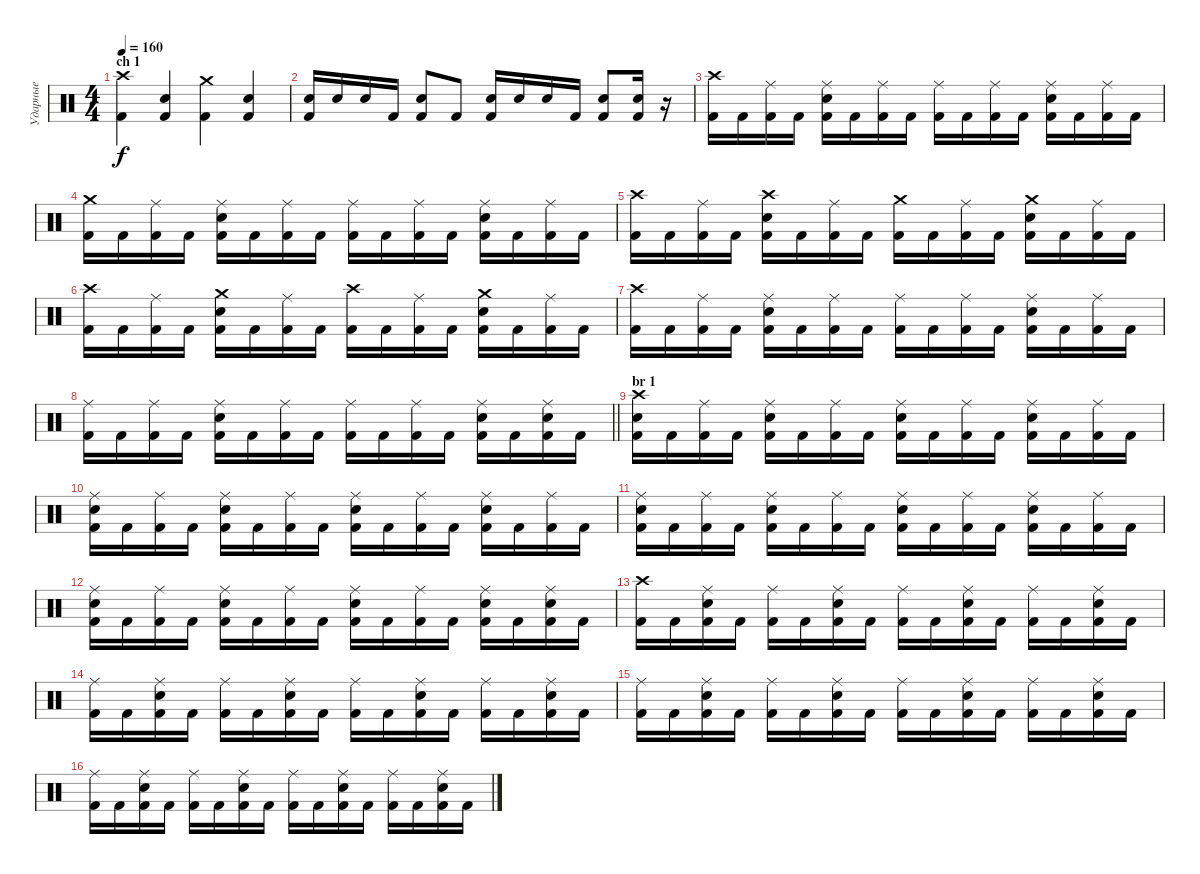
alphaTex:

\track ("Ударные" "Ударные") {instrument percussion}
\staff {score}
\articulation defaults
\ts (4 4)
\section ("" "ch 1")
\tempo 160
\clef neutral
\ks c
("Crash high (hit)" "Kick (hit) 2").4{dy f} ("Electric Snare (hit)" "Kick (hit) 2").4 ("Crash medium (hit)" "Kick (hit) 2").4 ("Electric Snare (hit)" "Kick (hit) 2").4 |
("Electric Snare (hit)" "Kick (hit) 2").16 "Electric Snare (hit)".16 "Electric Snare (hit)".16 "Kick (hit) 2".16 ("Electric Snare (hit)" "Kick (hit) 2").8 "Kick (hit) 2".8 ("Electric Snare (hit)" "Kick (hit) 2").16 "Electric Snare (hit)".16 "Electric Snare (hit)".16 "Kick (hit) 2".16 ("Electric Snare (hit)" "Kick (hit) 2").8 ("Electric Snare (hit)" "Kick (hit) 2").16 r.16 |
("Crash high (hit)" "Kick (hit) 2").16 "Kick (hit) 2".16 ("Ride (middle)" "Kick (hit) 2").16 "Kick (hit) 2".16 ("Ride (middle)" "Electric Snare (hit)" "Kick (hit) 2").16 "Kick (hit) 2".16 ("Ride (middle)" "Kick (hit) 2").16 "Kick (hit) 2".16 ("Ride (middle)" "Kick (hit) 2").16 "Kick (hit) 2".16 ("Ride (middle)" "Kick (hit) 2").16 "Kick (hit) 2".16 ("Ride (middle)" "Electric Snare (hit)" "Kick (hit) 2").16 "Kick (hit) 2".16 ("Ride (middle)" "Kick (hit) 2").16 "Kick (hit) 2".16 |
("Crash medium (hit)" "Kick (hit) 2").16 "Kick (hit) 2".16 ("Ride (middle)" "Kick (hit) 2").16 "Kick (hit) 2".16 ("Ride (middle)" "Electric Snare (hit)" "Kick (hit) 2").16 "Kick (hit) 2".16 ("Ride (middle)" "Kick (hit) 2").16 "Kick (hit) 2".16 ("Ride (middle)" "Kick (hit) 2").16 "Kick (hit) 2".16 ("Ride (middle)" "Kick (hit) 2").16 "Kick (hit) 2".16 ("Ride (middle)" "Electric Snare (hit)" "Kick (hit) 2").16 "Kick (hit) 2".16 ("Ride (middle)" "Kick (hit) 2").16 "Kick (hit) 2".16 |
("Crash high (hit)" "Kick (hit) 2").16 "Kick (hit) 2".16 ("Ride (middle)" "Kick (hit) 2").16 "Kick (hit) 2".16 ("Crash high (hit)" "Electric Snare (hit)" "Kick (hit) 2").16 "Kick (hit) 2".16 ("Ride (middle)" "Kick (hit) 2").16 "Kick (hit) 2".16 ("Crash medium (hit)" "Kick (hit) 2").16 "Kick (hit) 2".16 ("Ride (middle)" "Kick (hit) 2").16 "Kick (hit) 2".16 ("Crash medium (hit)" "Electric Snare (hit)" "Kick (hit) 2").16 "Kick (hit) 2".16 ("Ride (middle)" "Kick (hit) 2").16 "Kick (hit) 2".16 |
("Crash high (hit)" "Kick (hit) 2").16 "Kick (hit) 2".16 ("Ride (middle)" "Kick (hit) 2").16 "Kick (hit) 2".16 ("Crash medium (hit)" "Electric Snare (hit)" "Kick (hit) 2").16 "Kick (hit) 2".16 ("Ride (middle)" "Kick (hit) 2").16 "Kick (hit) 2".16 ("Crash high (hit)" "Kick (hit) 2").16 "Kick (hit) 2".16 ("Ride (middle)" "Kick (hit) 2").16 "Kick (hit) 2".16 ("Crash medium (hit)" "Electric Snare (hit)" "Kick (hit) 2").16 "Kick (hit) 2".16 ("Ride (middle)" "Kick (hit) 2").16 "Kick (hit) 2".16 |
("Crash high (hit)" "Kick (hit) 2").16 "Kick (hit) 2".16 ("Ride (middle)" "Kick (hit) 2").16 "Kick (hit) 2".16 ("Ride (middle)" "Electric Snare (hit)" "Kick (hit) 2").16 "Kick (hit) 2".16 ("Ride (middle)" "Kick (hit) 2").16 "Kick (hit) 2".16 ("Ride (middle)" "Kick (hit) 2").16 "Kick (hit) 2".16 ("Ride (middle)" "Kick (hit) 2").16 "Kick (hit) 2".16 ("Ride (middle)" "Electric Snare (hit)" "Kick (hit) 2").16 "Kick (hit) 2".16 ("Ride (middle)" "Kick (hit) 2").16 "Kick (hit) 2".16 |
\barLineRight lightlight
("Ride (middle)" "Kick (hit) 2").16 "Kick (hit) 2".16 ("Ride (middle)" "Kick (hit) 2").16 "Kick (hit) 2".16 ("Ride (middle)" "Electric Snare (hit)" "Kick (hit) 2").16 "Kick (hit) 2".16 ("Ride (middle)" "Kick (hit) 2").16 "Kick (hit) 2".16 ("Ride (middle)" "Kick (hit) 2").16 "Kick (hit) 2".16 ("Ride (middle)" "Kick (hit) 2").16 "Kick (hit) 2".16 ("Ride (middle)" "Electric Snare (hit)" "Kick (hit) 2").16 "Kick (hit) 2".16 ("Ride (middle)" "Electric Snare (hit)" "Kick (hit) 2").16 "Kick (hit) 2".16 |
\section ("" "br 1")
("Crash high (hit)" "Electric Snare (hit)" "Kick (hit) 2").16 "Kick (hit) 2".16 ("Ride (middle)" "Kick (hit) 2").16 "Kick (hit) 2".16 ("Ride (middle)" "Electric Snare (hit)" "Kick (hit) 2").16 "Kick (hit) 2".16 ("Ride (middle)" "Kick (hit) 2").16 "Kick (hit) 2".16 ("Ride (middle)" "Electric Snare (hit)" "Kick (hit) 2").16 "Kick (hit) 2".16 ("Ride (middle)" "Kick (hit) 2").16 "Kick (hit) 2".16 ("Ride (middle)" "Electric Snare (hit)" "Kick (hit) 2").16 "Kick (hit) 2".16 ("Ride (middle)" "Kick (hit) 2").16 "Kick (hit) 2".16 |
("Ride (middle)" "Electric Snare (hit)" "Kick (hit) 2").16 "Kick (hit) 2".16 ("Ride (middle)" "Kick (hit) 2").16 "Kick (hit) 2".16 ("Ride (middle)" "Electric Snare (hit)" "Kick (hit) 2").16 "Kick (hit) 2".16 ("Ride (middle)" "Kick (hit) 2").16 "Kick (hit) 2".16 ("Ride (middle)" "Electric Snare (hit)" "Kick (hit) 2").16 "Kick (hit) 2".16 ("Ride (middle)" "Kick (hit) 2").16 "Kick (hit) 2".16 ("Ride (middle)" "Electric Snare (hit)" "Kick (hit) 2").16 "Kick (hit) 2".16 ("Ride (middle)" "Kick (hit) 2").16 "Kick (hit) 2".16 |
("Ride (middle)" "Electric Snare (hit)" "Kick (hit) 2").16 "Kick (hit) 2".16 ("Ride (middle)" "Kick (hit) 2").16 "Kick (hit) 2".16 ("Ride (middle)" "Electric Snare (hit)" "Kick (hit) 2").16 "Kick (hit) 2".16 ("Ride (middle)" "Kick (hit) 2").16 "Kick (hit) 2".16 ("Ride (middle)" "Electric Snare (hit)" "Kick (hit) 2").16 "Kick (hit) 2".16 ("Ride (middle)" "Kick (hit) 2").16 "Kick (hit) 2".16 ("Ride (middle)" "Electric Snare (hit)" "Kick (hit) 2").16 "Kick (hit) 2".16 ("Ride (middle)" "Kick (hit) 2").16 "Kick (hit) 2".16 |
("Ride (middle)" "Electric Snare (hit)" "Kick (hit) 2").16 "Kick (hit) 2".16 ("Ride (middle)" "Kick (hit) 2").16 "Kick (hit) 2".16 ("Ride (middle)" "Electric Snare (hit)" "Kick (hit) 2").16 "Kick (hit) 2".16 ("Ride (middle)" "Kick (hit) 2").16 "Kick (hit) 2".16 ("Ride (middle)" "Electric Snare (hit)" "Kick (hit) 2").16 "Kick (hit) 2".16 ("Ride (middle)" "Kick (hit) 2").16 "Kick (hit) 2".16 ("Ride (middle)" "Electric Snare (hit)" "Kick (hit) 2").16 "Kick (hit) 2".16 ("Ride (middle)" "Electric Snare (hit)" "Kick (hit) 2").16 "Kick (hit) 2".16 |
("Crash high (hit)" "Kick (hit) 2").16 "Kick (hit) 2".16 ("Ride (middle)" "Electric Snare (hit)" "Kick (hit) 2").16 "Kick (hit) 2".16 ("Ride (middle)" "Kick (hit) 2").16 "Kick (hit) 2".16 ("Ride (middle)" "Electric Snare (hit)" "Kick (hit) 2").16 "Kick (hit) 2".16 ("Ride (middle)" "Kick (hit) 2").16 "Kick (hit) 2".16 ("Ride (middle)" "Electric Snare (hit)" "Kick (hit) 2").16 "Kick (hit) 2".16 ("Ride (middle)" "Kick (hit) 2").16 "Kick (hit) 2".16 ("Ride (middle)" "Electric Snare (hit)" "Kick (hit) 2").16 "Kick (hit) 2".16 |
("Ride (middle)" "Kick (hit) 2").16 "Kick (hit) 2".16 ("Ride (middle)" "Electric Snare (hit)" "Kick (hit) 2").16 "Kick (hit) 2".16 ("Ride (middle)" "Kick (hit) 2").16 "Kick (hit) 2".16 ("Ride (middle)" "Electric Snare (hit)" "Kick (hit) 2").16 "Kick (hit) 2".16 ("Ride (middle)" "Kick (hit) 2").16 "Kick (hit) 2".16 ("Ride (middle)" "Electric Snare (hit)" "Kick (hit) 2").16 "Kick (hit) 2".16 ("Ride (middle)" "Kick (hit) 2").16 "Kick (hit) 2".16 ("Ride (middle)" "Electric Snare (hit)" "Kick (hit) 2").16 "Kick (hit) 2".16 |
("Ride (middle)" "Kick (hit) 2").16 "Kick (hit) 2".16 ("Ride (middle)" "Electric Snare (hit)" "Kick (hit) 2").16 "Kick (hit) 2".16 ("Ride (middle)" "Kick (hit) 2").16 "Kick (hit) 2".16 ("Ride (middle)" "Electric Snare (hit)" "Kick (hit) 2").16 "Kick (hit) 2".16 ("Ride (middle)" "Kick (hit) 2").16 "Kick (hit) 2".16 ("Ride (middle)" "Electric Snare (hit)" "Kick (hit) 2").16 "Kick (hit) 2".16 ("Ride (middle)" "Kick (hit) 2").16 "Kick (hit) 2".16 ("Ride (middle)" "Electric Snare (hit)" "Kick (hit) 2").16 "Kick (hit) 2".16 |
("Ride (middle)" "Kick (hit) 2").16 "Kick (hit) 2".16 ("Ride (middle)" "Electric Snare (hit)" "Kick (hit) 2").16 "Kick (hit) 2".16 ("Ride (middle)" "Kick (hit) 2").16 "Kick (hit) 2".16 ("Ride (middle)" "Electric Snare (hit)" "Kick (hit) 2").16 "Kick (hit) 2".16 ("Ride (middle)" "Kick (hit) 2").16 "Kick (hit) 2".16 ("Ride (middle)" "Electric Snare (hit)" "Kick (hit) 2").16 "Kick (hit) 2".16 ("Ride (middle)" "Kick (hit) 2").16 "Kick (hit) 2".16 ("Ride (middle)" "Electric Snare (hit)" "Kick (hit) 2").16 "Kick (hit) 2".16
